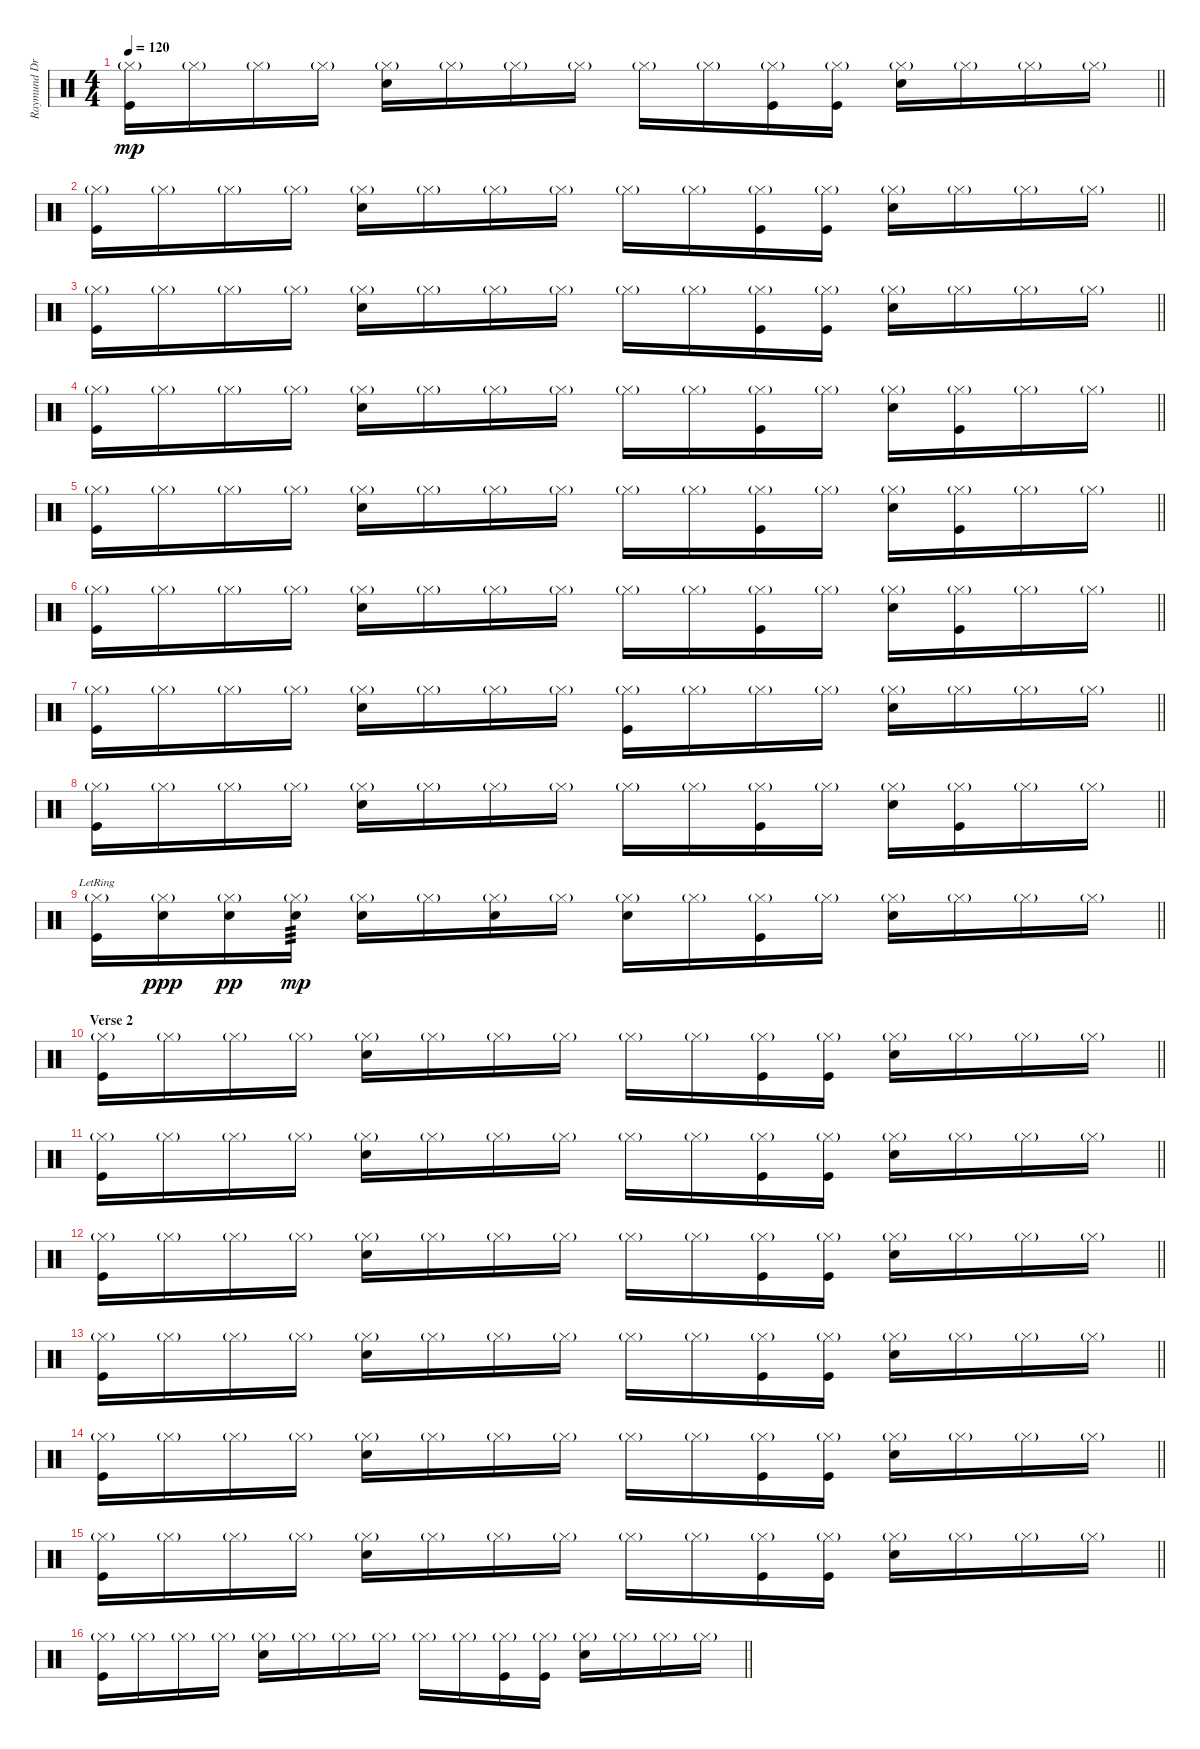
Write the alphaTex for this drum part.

\track ("Raymund Drums" "Raymund Dr") {instrument percussion}
\staff {score}
\articulation defaults
\ts (4 4)
\tempo 120
\clef neutral
\barLineRight lightlight
\ks c
("Hi-Hat (closed)"{g} "Kick (hit)").16{dy mp} "Hi-Hat (closed)"{g}.16 "Hi-Hat (closed)"{g}.16 "Hi-Hat (closed)"{g}.16 ("Hi-Hat (closed)"{g} "Snare (hit) 2").16 "Hi-Hat (closed)"{g}.16 "Hi-Hat (closed)"{g}.16 "Hi-Hat (closed)"{g}.16 "Hi-Hat (closed)"{g}.16 "Hi-Hat (closed)"{g}.16 ("Hi-Hat (closed)"{g} "Kick (hit)").16 ("Hi-Hat (closed)"{g} "Kick (hit)").16 ("Hi-Hat (closed)"{g} "Snare (hit) 2").16 "Hi-Hat (closed)"{g}.16 "Hi-Hat (closed)"{g}.16 "Hi-Hat (closed)"{g}.16 |
\barLineRight lightlight
("Hi-Hat (closed)"{g} "Kick (hit)").16 "Hi-Hat (closed)"{g}.16 "Hi-Hat (closed)"{g}.16 "Hi-Hat (closed)"{g}.16 ("Hi-Hat (closed)"{g} "Snare (hit) 2").16 "Hi-Hat (closed)"{g}.16 "Hi-Hat (closed)"{g}.16 "Hi-Hat (closed)"{g}.16 "Hi-Hat (closed)"{g}.16 "Hi-Hat (closed)"{g}.16 ("Hi-Hat (closed)"{g} "Kick (hit)").16 ("Hi-Hat (closed)"{g} "Kick (hit)").16 ("Hi-Hat (closed)"{g} "Snare (hit) 2").16 "Hi-Hat (closed)"{g}.16 "Hi-Hat (closed)"{g}.16 "Hi-Hat (closed)"{g}.16 |
\barLineRight lightlight
("Hi-Hat (closed)"{g} "Kick (hit)").16 "Hi-Hat (closed)"{g}.16 "Hi-Hat (closed)"{g}.16 "Hi-Hat (closed)"{g}.16 ("Hi-Hat (closed)"{g} "Snare (hit) 2").16 "Hi-Hat (closed)"{g}.16 "Hi-Hat (closed)"{g}.16 "Hi-Hat (closed)"{g}.16 "Hi-Hat (closed)"{g}.16 "Hi-Hat (closed)"{g}.16 ("Hi-Hat (closed)"{g} "Kick (hit)").16 ("Hi-Hat (closed)"{g} "Kick (hit)").16 ("Hi-Hat (closed)"{g} "Snare (hit) 2").16 "Hi-Hat (closed)"{g}.16 "Hi-Hat (closed)"{g}.16 "Hi-Hat (closed)"{g}.16 |
\barLineRight lightlight
("Hi-Hat (closed)"{g} "Kick (hit)").16 "Hi-Hat (closed)"{g}.16 "Hi-Hat (closed)"{g}.16 "Hi-Hat (closed)"{g}.16 ("Hi-Hat (closed)"{g} "Snare (hit) 2").16 "Hi-Hat (closed)"{g}.16 "Hi-Hat (closed)"{g}.16 "Hi-Hat (closed)"{g}.16 "Hi-Hat (closed)"{g}.16 "Hi-Hat (closed)"{g}.16 ("Hi-Hat (closed)"{g} "Kick (hit)").16 "Hi-Hat (closed)"{g}.16 ("Hi-Hat (closed)"{g} "Snare (hit) 2").16 ("Hi-Hat (closed)"{g} "Kick (hit)").16 "Hi-Hat (closed)"{g}.16 "Hi-Hat (closed)"{g}.16 |
\barLineRight lightlight
("Hi-Hat (closed)"{g} "Kick (hit)").16 "Hi-Hat (closed)"{g}.16 "Hi-Hat (closed)"{g}.16 "Hi-Hat (closed)"{g}.16 ("Hi-Hat (closed)"{g} "Snare (hit) 2").16 "Hi-Hat (closed)"{g}.16 "Hi-Hat (closed)"{g}.16 "Hi-Hat (closed)"{g}.16 "Hi-Hat (closed)"{g}.16 "Hi-Hat (closed)"{g}.16 ("Hi-Hat (closed)"{g} "Kick (hit)").16 "Hi-Hat (closed)"{g}.16 ("Hi-Hat (closed)"{g} "Snare (hit) 2").16 ("Hi-Hat (closed)"{g} "Kick (hit)").16 "Hi-Hat (closed)"{g}.16 "Hi-Hat (closed)"{g}.16 |
\barLineRight lightlight
("Hi-Hat (closed)"{g} "Kick (hit)").16 "Hi-Hat (closed)"{g}.16 "Hi-Hat (closed)"{g}.16 "Hi-Hat (closed)"{g}.16 ("Hi-Hat (closed)"{g} "Snare (hit) 2").16 "Hi-Hat (closed)"{g}.16 "Hi-Hat (closed)"{g}.16 "Hi-Hat (closed)"{g}.16 "Hi-Hat (closed)"{g}.16 "Hi-Hat (closed)"{g}.16 ("Hi-Hat (closed)"{g} "Kick (hit)").16 "Hi-Hat (closed)"{g}.16 ("Hi-Hat (closed)"{g} "Snare (hit) 2").16 ("Hi-Hat (closed)"{g} "Kick (hit)").16 "Hi-Hat (closed)"{g}.16 "Hi-Hat (closed)"{g}.16 |
\barLineRight lightlight
("Hi-Hat (closed)"{g} "Kick (hit)").16 "Hi-Hat (closed)"{g}.16 "Hi-Hat (closed)"{g}.16 "Hi-Hat (closed)"{g}.16 ("Hi-Hat (closed)"{g} "Snare (hit) 2").16 "Hi-Hat (closed)"{g}.16 "Hi-Hat (closed)"{g}.16 "Hi-Hat (closed)"{g}.16 ("Hi-Hat (closed)"{g} "Kick (hit)").16 "Hi-Hat (closed)"{g}.16 "Hi-Hat (closed)"{g}.16 "Hi-Hat (closed)"{g}.16 ("Hi-Hat (closed)"{g} "Snare (hit) 2").16 "Hi-Hat (closed)"{g}.16 "Hi-Hat (closed)"{g}.16 "Hi-Hat (closed)"{g}.16 |
\barLineRight lightlight
("Hi-Hat (closed)"{g} "Kick (hit)").16 "Hi-Hat (closed)"{g}.16 "Hi-Hat (closed)"{g}.16 "Hi-Hat (closed)"{g}.16 ("Hi-Hat (closed)"{g} "Snare (hit) 2").16 "Hi-Hat (closed)"{g}.16 "Hi-Hat (closed)"{g}.16 "Hi-Hat (closed)"{g}.16 "Hi-Hat (closed)"{g}.16 "Hi-Hat (closed)"{g}.16 ("Hi-Hat (closed)"{g} "Kick (hit)").16 "Hi-Hat (closed)"{g}.16 ("Hi-Hat (closed)"{g} "Snare (hit) 2").16 ("Hi-Hat (closed)"{g} "Kick (hit)").16 "Hi-Hat (closed)"{g}.16 "Hi-Hat (closed)"{g}.16 |
\barLineRight lightlight
("Hi-Hat (closed)"{g} "Kick (hit)"{lr}).16 ("Hi-Hat (closed)"{g} "Snare (hit) 2").16{dy ppp} ("Hi-Hat (closed)"{g} "Snare (hit) 2").16{dy pp} ("Hi-Hat (closed)"{g} "Snare (hit) 2").16{tp 3 dy mp} ("Hi-Hat (closed)"{g} "Snare (hit) 2").16 "Hi-Hat (closed)"{g}.16 ("Hi-Hat (closed)"{g} "Snare (hit) 2").16 "Hi-Hat (closed)"{g}.16 ("Hi-Hat (closed)"{g} "Snare (hit) 2").16 "Hi-Hat (closed)"{g}.16 ("Hi-Hat (closed)"{g} "Kick (hit)").16 "Hi-Hat (closed)"{g}.16 ("Hi-Hat (closed)"{g} "Snare (hit) 2").16 "Hi-Hat (closed)"{g}.16 "Hi-Hat (closed)"{g}.16 "Hi-Hat (closed)"{g}.16 |
\section ("" "Verse 2")
\barLineRight lightlight
("Hi-Hat (closed)"{g} "Kick (hit)").16 "Hi-Hat (closed)"{g}.16 "Hi-Hat (closed)"{g}.16 "Hi-Hat (closed)"{g}.16 ("Hi-Hat (closed)"{g} "Snare (hit) 2").16 "Hi-Hat (closed)"{g}.16 "Hi-Hat (closed)"{g}.16 "Hi-Hat (closed)"{g}.16 "Hi-Hat (closed)"{g}.16 "Hi-Hat (closed)"{g}.16 ("Hi-Hat (closed)"{g} "Kick (hit)").16 ("Hi-Hat (closed)"{g} "Kick (hit)").16 ("Hi-Hat (closed)"{g} "Snare (hit) 2").16 "Hi-Hat (closed)"{g}.16 "Hi-Hat (closed)"{g}.16 "Hi-Hat (closed)"{g}.16 |
\barLineRight lightlight
("Hi-Hat (closed)"{g} "Kick (hit)").16 "Hi-Hat (closed)"{g}.16 "Hi-Hat (closed)"{g}.16 "Hi-Hat (closed)"{g}.16 ("Hi-Hat (closed)"{g} "Snare (hit) 2").16 "Hi-Hat (closed)"{g}.16 "Hi-Hat (closed)"{g}.16 "Hi-Hat (closed)"{g}.16 "Hi-Hat (closed)"{g}.16 "Hi-Hat (closed)"{g}.16 ("Hi-Hat (closed)"{g} "Kick (hit)").16 ("Hi-Hat (closed)"{g} "Kick (hit)").16 ("Hi-Hat (closed)"{g} "Snare (hit) 2").16 "Hi-Hat (closed)"{g}.16 "Hi-Hat (closed)"{g}.16 "Hi-Hat (closed)"{g}.16 |
\barLineRight lightlight
("Hi-Hat (closed)"{g} "Kick (hit)").16 "Hi-Hat (closed)"{g}.16 "Hi-Hat (closed)"{g}.16 "Hi-Hat (closed)"{g}.16 ("Hi-Hat (closed)"{g} "Snare (hit) 2").16 "Hi-Hat (closed)"{g}.16 "Hi-Hat (closed)"{g}.16 "Hi-Hat (closed)"{g}.16 "Hi-Hat (closed)"{g}.16 "Hi-Hat (closed)"{g}.16 ("Hi-Hat (closed)"{g} "Kick (hit)").16 ("Hi-Hat (closed)"{g} "Kick (hit)").16 ("Hi-Hat (closed)"{g} "Snare (hit) 2").16 "Hi-Hat (closed)"{g}.16 "Hi-Hat (closed)"{g}.16 "Hi-Hat (closed)"{g}.16 |
\barLineRight lightlight
("Hi-Hat (closed)"{g} "Kick (hit)").16 "Hi-Hat (closed)"{g}.16 "Hi-Hat (closed)"{g}.16 "Hi-Hat (closed)"{g}.16 ("Hi-Hat (closed)"{g} "Snare (hit) 2").16 "Hi-Hat (closed)"{g}.16 "Hi-Hat (closed)"{g}.16 "Hi-Hat (closed)"{g}.16 "Hi-Hat (closed)"{g}.16 "Hi-Hat (closed)"{g}.16 ("Hi-Hat (closed)"{g} "Kick (hit)").16 ("Hi-Hat (closed)"{g} "Kick (hit)").16 ("Hi-Hat (closed)"{g} "Snare (hit) 2").16 "Hi-Hat (closed)"{g}.16 "Hi-Hat (closed)"{g}.16 "Hi-Hat (closed)"{g}.16 |
\barLineRight lightlight
("Hi-Hat (closed)"{g} "Kick (hit)").16 "Hi-Hat (closed)"{g}.16 "Hi-Hat (closed)"{g}.16 "Hi-Hat (closed)"{g}.16 ("Hi-Hat (closed)"{g} "Snare (hit) 2").16 "Hi-Hat (closed)"{g}.16 "Hi-Hat (closed)"{g}.16 "Hi-Hat (closed)"{g}.16 "Hi-Hat (closed)"{g}.16 "Hi-Hat (closed)"{g}.16 ("Hi-Hat (closed)"{g} "Kick (hit)").16 ("Hi-Hat (closed)"{g} "Kick (hit)").16 ("Hi-Hat (closed)"{g} "Snare (hit) 2").16 "Hi-Hat (closed)"{g}.16 "Hi-Hat (closed)"{g}.16 "Hi-Hat (closed)"{g}.16 |
\barLineRight lightlight
("Hi-Hat (closed)"{g} "Kick (hit)").16 "Hi-Hat (closed)"{g}.16 "Hi-Hat (closed)"{g}.16 "Hi-Hat (closed)"{g}.16 ("Hi-Hat (closed)"{g} "Snare (hit) 2").16 "Hi-Hat (closed)"{g}.16 "Hi-Hat (closed)"{g}.16 "Hi-Hat (closed)"{g}.16 "Hi-Hat (closed)"{g}.16 "Hi-Hat (closed)"{g}.16 ("Hi-Hat (closed)"{g} "Kick (hit)").16 ("Hi-Hat (closed)"{g} "Kick (hit)").16 ("Hi-Hat (closed)"{g} "Snare (hit) 2").16 "Hi-Hat (closed)"{g}.16 "Hi-Hat (closed)"{g}.16 "Hi-Hat (closed)"{g}.16 |
\barLineRight lightlight
("Hi-Hat (closed)"{g} "Kick (hit)").16 "Hi-Hat (closed)"{g}.16 "Hi-Hat (closed)"{g}.16 "Hi-Hat (closed)"{g}.16 ("Hi-Hat (closed)"{g} "Snare (hit) 2").16 "Hi-Hat (closed)"{g}.16 "Hi-Hat (closed)"{g}.16 "Hi-Hat (closed)"{g}.16 "Hi-Hat (closed)"{g}.16 "Hi-Hat (closed)"{g}.16 ("Hi-Hat (closed)"{g} "Kick (hit)").16 ("Hi-Hat (closed)"{g} "Kick (hit)").16 ("Hi-Hat (closed)"{g} "Snare (hit) 2").16 "Hi-Hat (closed)"{g}.16 "Hi-Hat (closed)"{g}.16 "Hi-Hat (closed)"{g}.16
